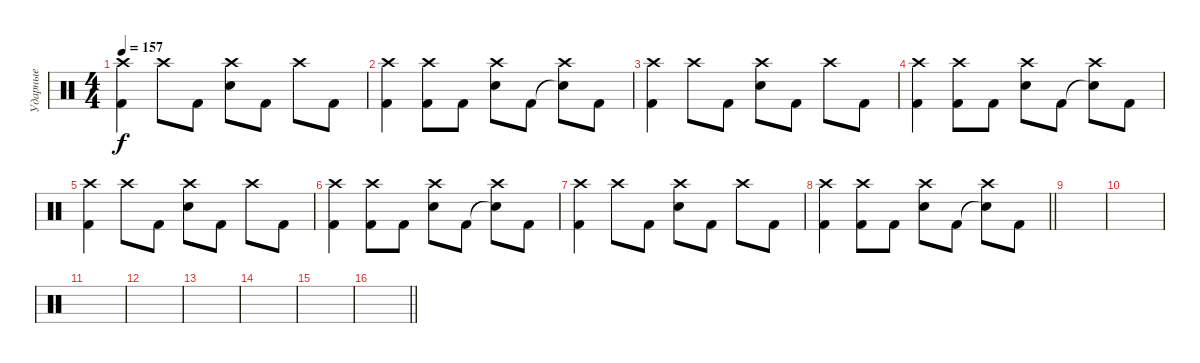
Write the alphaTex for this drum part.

\track ("Ударные" "Ударные") {instrument percussion}
\staff {score}
\articulation defaults
\ts (4 4)
\tempo 157
\clef neutral
\ks c
("Kick (hit) 2" "Crash high (hit)").4{dy f} "Crash high (hit)".8 "Kick (hit) 2".8 ("Electric Snare (hit)" "Crash high (hit)").8 "Kick (hit) 2".8 "Crash high (hit)".8 "Kick (hit) 2".8 |
("Kick (hit) 2" "Crash high (hit)").4 ("Kick (hit) 2" "Crash high (hit)").8 "Kick (hit) 2".8 ("Electric Snare (hit)" "Crash high (hit)").8 "Kick (hit) 2".8 ("Snare (hit)"{t} "Crash high (hit)").8 "Kick (hit) 2".8 |
("Kick (hit) 2" "Crash high (hit)").4 "Crash high (hit)".8 "Kick (hit) 2".8 ("Electric Snare (hit)" "Crash high (hit)").8 "Kick (hit) 2".8 "Crash high (hit)".8 "Kick (hit) 2".8 |
("Kick (hit) 2" "Crash high (hit)").4 ("Kick (hit) 2" "Crash high (hit)").8 "Kick (hit) 2".8 ("Electric Snare (hit)" "Crash high (hit)").8 "Kick (hit) 2".8 ("Snare (hit)"{t} "Crash high (hit)").8 "Kick (hit) 2".8 |
("Kick (hit) 2" "Crash high (hit)").4 "Crash high (hit)".8 "Kick (hit) 2".8 ("Electric Snare (hit)" "Crash high (hit)").8 "Kick (hit) 2".8 "Crash high (hit)".8 "Kick (hit) 2".8 |
("Kick (hit) 2" "Crash high (hit)").4 ("Kick (hit) 2" "Crash high (hit)").8 "Kick (hit) 2".8 ("Electric Snare (hit)" "Crash high (hit)").8 "Kick (hit) 2".8 ("Snare (hit)"{t} "Crash high (hit)").8 "Kick (hit) 2".8 |
("Kick (hit) 2" "Crash high (hit)").4 "Crash high (hit)".8 "Kick (hit) 2".8 ("Electric Snare (hit)" "Crash high (hit)").8 "Kick (hit) 2".8 "Crash high (hit)".8 "Kick (hit) 2".8 |
\barLineRight lightlight
("Kick (hit) 2" "Crash high (hit)").4 ("Kick (hit) 2" "Crash high (hit)").8 "Kick (hit) 2".8 ("Electric Snare (hit)" "Crash high (hit)").8 "Kick (hit) 2".8 ("Snare (hit)"{t} "Crash high (hit)").8 "Kick (hit) 2".8 |
\section ("" "")
|
|
|
|
|
|
|
\barLineRight lightlight
